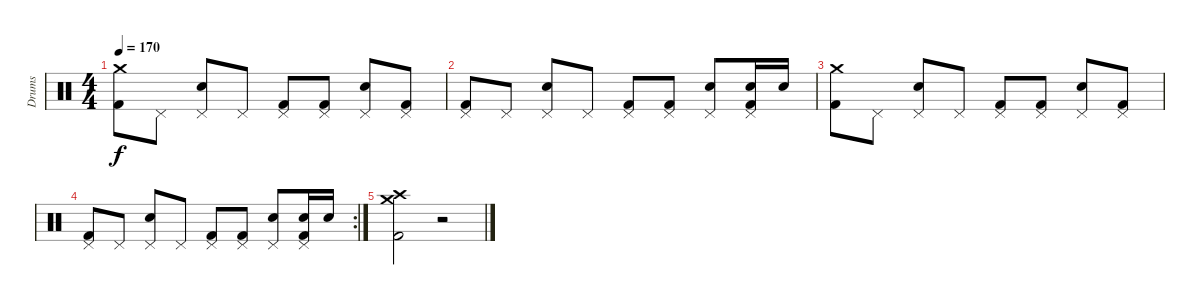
\track ("Drums" "Drums") {instrument percussion}
\staff {score}
\articulation defaults
\ts (4 4)
\tempo 170
\clef neutral
\ks c
("Crash medium (hit)" "Kick (hit) 2").8{dy f} "Pedal Hi-Hat (hit)".8 ("Pedal Hi-Hat (hit)" "Snare (hit) 2").8 "Pedal Hi-Hat (hit)".8 ("Pedal Hi-Hat (hit)" "Kick (hit) 2").8 ("Pedal Hi-Hat (hit)" "Kick (hit) 2").8 ("Pedal Hi-Hat (hit)" "Snare (hit) 2").8 ("Pedal Hi-Hat (hit)" "Kick (hit) 2").8 |
("Pedal Hi-Hat (hit)" "Kick (hit) 2").8 "Pedal Hi-Hat (hit)".8 ("Pedal Hi-Hat (hit)" "Snare (hit) 2").8 "Pedal Hi-Hat (hit)".8 ("Pedal Hi-Hat (hit)" "Kick (hit) 2").8 ("Pedal Hi-Hat (hit)" "Kick (hit) 2").8 ("Pedal Hi-Hat (hit)" "Snare (hit) 2").8 ("Pedal Hi-Hat (hit)" "Snare (hit) 2" "Kick (hit) 2").16 "Snare (hit) 2".16 |
("Crash medium (hit)" "Kick (hit) 2").8 "Pedal Hi-Hat (hit)".8 ("Pedal Hi-Hat (hit)" "Snare (hit) 2").8 "Pedal Hi-Hat (hit)".8 ("Pedal Hi-Hat (hit)" "Kick (hit) 2").8 ("Pedal Hi-Hat (hit)" "Kick (hit) 2").8 ("Pedal Hi-Hat (hit)" "Snare (hit) 2").8 ("Pedal Hi-Hat (hit)" "Kick (hit) 2").8 |
\rc 2
("Pedal Hi-Hat (hit)" "Kick (hit) 2").8 "Pedal Hi-Hat (hit)".8 ("Pedal Hi-Hat (hit)" "Snare (hit) 2").8 "Pedal Hi-Hat (hit)".8 ("Pedal Hi-Hat (hit)" "Kick (hit) 2").8 ("Pedal Hi-Hat (hit)" "Kick (hit) 2").8 ("Pedal Hi-Hat (hit)" "Snare (hit) 2").8 ("Pedal Hi-Hat (hit)" "Snare (hit) 2" "Kick (hit) 2").16 "Snare (hit) 2".16 |
("Crash medium (hit)" "Crash high (hit)" "Kick (hit) 2").2 r.2
